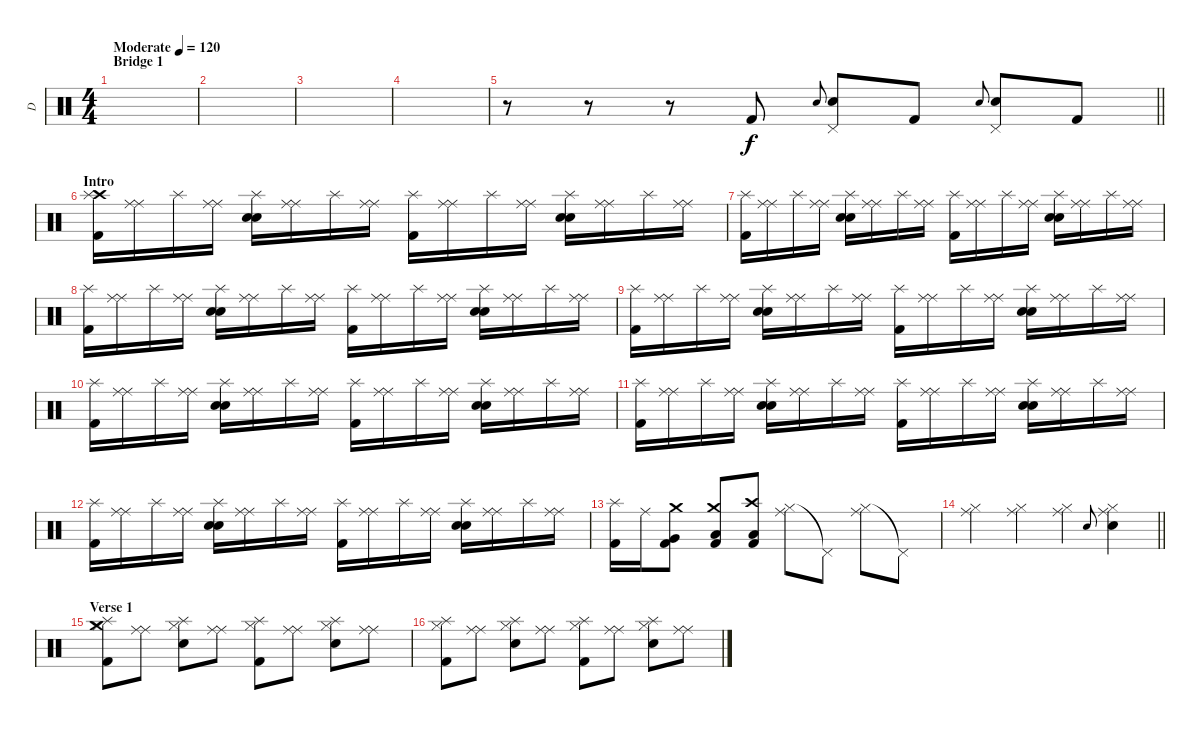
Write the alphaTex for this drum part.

\track ("D" "D") {instrument percussion}
\staff {score}
\articulation defaults
\ts (4 4)
\section ("" "Bridge 1")
\tempo (120 "Moderate")
\clef neutral
\ks c
|
|
|
|
\barLineRight lightlight
r.8 r.8 r.8 "Kick (hit) 2".8 "Electric Snare (hit)".8{gr onbeat} ("Electric Snare (hit)" "Pedal Hi-Hat (hit)").8 "Kick (hit) 2".8 "Electric Snare (hit)".8{gr onbeat} ("Electric Snare (hit)" "Pedal Hi-Hat (hit)").8 "Kick (hit) 2".8 |
\section ("" "Intro")
("Crash high (hit)" "Kick (hit) 2" "Splash (hit)").16 ("Ride (middle)" "Ride (middle)").16 "Splash (hit)".16 ("Ride (middle)" "Ride (middle)").16 ("Electric Snare (hit)" "Electric Snare (hit)" "Splash (hit)").16 ("Ride (middle)" "Ride (middle)").16 "Splash (hit)".16 ("Ride (middle)" "Ride (middle)").16 ("Kick (hit) 2" "Splash (hit)").16 ("Ride (middle)" "Ride (middle)").16 "Splash (hit)".16 ("Ride (middle)" "Ride (middle)").16 ("Electric Snare (hit)" "Electric Snare (hit)" "Splash (hit)").16 ("Ride (middle)" "Ride (middle)").16 "Splash (hit)".16 ("Ride (middle)" "Ride (middle)").16 |
("Kick (hit) 2" "Splash (hit)").16 ("Ride (middle)" "Ride (middle)").16 "Splash (hit)".16 ("Ride (middle)" "Ride (middle)").16 ("Electric Snare (hit)" "Electric Snare (hit)" "Splash (hit)").16 ("Ride (middle)" "Ride (middle)").16 "Splash (hit)".16 ("Ride (middle)" "Ride (middle)").16 ("Kick (hit) 2" "Splash (hit)").16 ("Ride (middle)" "Ride (middle)").16 "Splash (hit)".16 ("Ride (middle)" "Ride (middle)").16 ("Electric Snare (hit)" "Electric Snare (hit)" "Splash (hit)").16 ("Ride (middle)" "Ride (middle)").16 "Splash (hit)".16 ("Ride (middle)" "Ride (middle)").16 |
("Kick (hit) 2" "Splash (hit)").16 ("Ride (middle)" "Ride (middle)").16 "Splash (hit)".16 ("Ride (middle)" "Ride (middle)").16 ("Electric Snare (hit)" "Electric Snare (hit)" "Splash (hit)").16 ("Ride (middle)" "Ride (middle)").16 "Splash (hit)".16 ("Ride (middle)" "Ride (middle)").16 ("Kick (hit) 2" "Splash (hit)").16 ("Ride (middle)" "Ride (middle)").16 "Splash (hit)".16 ("Ride (middle)" "Ride (middle)").16 ("Electric Snare (hit)" "Electric Snare (hit)" "Splash (hit)").16 ("Ride (middle)" "Ride (middle)").16 "Splash (hit)".16 ("Ride (middle)" "Ride (middle)").16 |
("Kick (hit) 2" "Splash (hit)").16 ("Ride (middle)" "Ride (middle)").16 "Splash (hit)".16 ("Ride (middle)" "Ride (middle)").16 ("Electric Snare (hit)" "Electric Snare (hit)" "Splash (hit)").16 ("Ride (middle)" "Ride (middle)").16 "Splash (hit)".16 ("Ride (middle)" "Ride (middle)").16 ("Kick (hit) 2" "Splash (hit)").16 ("Ride (middle)" "Ride (middle)").16 "Splash (hit)".16 ("Ride (middle)" "Ride (middle)").16 ("Electric Snare (hit)" "Electric Snare (hit)" "Splash (hit)").16 ("Ride (middle)" "Ride (middle)").16 "Splash (hit)".16 ("Ride (middle)" "Ride (middle)").16 |
("Kick (hit) 2" "Splash (hit)").16 ("Ride (middle)" "Ride (middle)").16 "Splash (hit)".16 ("Ride (middle)" "Ride (middle)").16 ("Electric Snare (hit)" "Electric Snare (hit)" "Splash (hit)").16 ("Ride (middle)" "Ride (middle)").16 "Splash (hit)".16 ("Ride (middle)" "Ride (middle)").16 ("Kick (hit) 2" "Splash (hit)").16 ("Ride (middle)" "Ride (middle)").16 "Splash (hit)".16 ("Ride (middle)" "Ride (middle)").16 ("Electric Snare (hit)" "Electric Snare (hit)" "Splash (hit)").16 ("Ride (middle)" "Ride (middle)").16 "Splash (hit)".16 ("Ride (middle)" "Ride (middle)").16 |
("Kick (hit) 2" "Splash (hit)").16 ("Ride (middle)" "Ride (middle)").16 "Splash (hit)".16 ("Ride (middle)" "Ride (middle)").16 ("Electric Snare (hit)" "Electric Snare (hit)" "Splash (hit)").16 ("Ride (middle)" "Ride (middle)").16 "Splash (hit)".16 ("Ride (middle)" "Ride (middle)").16 ("Kick (hit) 2" "Splash (hit)").16 ("Ride (middle)" "Ride (middle)").16 "Splash (hit)".16 ("Ride (middle)" "Ride (middle)").16 ("Electric Snare (hit)" "Electric Snare (hit)" "Splash (hit)").16 ("Ride (middle)" "Ride (middle)").16 "Splash (hit)".16 ("Ride (middle)" "Ride (middle)").16 |
("Kick (hit) 2" "Splash (hit)").16 ("Ride (middle)" "Ride (middle)").16 "Splash (hit)".16 ("Ride (middle)" "Ride (middle)").16 ("Electric Snare (hit)" "Electric Snare (hit)" "Splash (hit)").16 ("Ride (middle)" "Ride (middle)").16 "Splash (hit)".16 ("Ride (middle)" "Ride (middle)").16 ("Kick (hit) 2" "Splash (hit)").16 ("Ride (middle)" "Ride (middle)").16 "Splash (hit)".16 ("Ride (middle)" "Ride (middle)").16 ("Electric Snare (hit)" "Electric Snare (hit)" "Splash (hit)").16 ("Ride (middle)" "Ride (middle)").16 "Splash (hit)".16 ("Ride (middle)" "Ride (middle)").16 |
("Kick (hit) 2" "Splash (hit)").16 "Ride (middle)".16 ("Crash medium (hit)" "Very Low Tom (hit)" "Kick (hit) 2").8 ("Crash medium (hit)" "Low Tom (hit)" "Kick (hit) 2").8 ("Crash high (hit)" "Low Tom (hit)" "Kick (hit) 2").8 ("Hi-Hat (closed)" "Ride (middle)").8 "Pedal Hi-Hat (hit)"{t}.8 ("Hi-Hat (closed)" "Ride (middle)").8 "Pedal Hi-Hat (hit)"{t}.8 |
\barLineRight lightlight
("Hi-Hat (closed)" "Ride (middle)").4 ("Hi-Hat (closed)" "Ride (middle)").4 ("Hi-Hat (closed)" "Ride (middle)").4 "Electric Snare (hit)".8{gr onbeat} ("Electric Snare (hit)" "Hi-Hat (closed)" "Ride (middle)").4 |
\section ("" "Verse 1")
("Crash medium (hit)" "Kick (hit) 2" "Splash (hit)" "Hi-Hat (closed)").8 ("Ride (middle)" "Ride (middle)").8 ("Electric Snare (hit)" "Splash (hit)" "Hi-Hat (closed)").8 ("Ride (middle)" "Ride (middle)").8 ("Kick (hit) 2" "Splash (hit)" "Hi-Hat (closed)").8 ("Ride (middle)" "Ride (middle)").8 ("Electric Snare (hit)" "Splash (hit)" "Hi-Hat (closed)").8 ("Ride (middle)" "Ride (middle)").8 |
("Kick (hit) 2" "Splash (hit)" "Hi-Hat (closed)").8 ("Ride (middle)" "Ride (middle)").8 ("Electric Snare (hit)" "Splash (hit)" "Hi-Hat (closed)").8 ("Ride (middle)" "Ride (middle)").8 ("Kick (hit) 2" "Splash (hit)" "Hi-Hat (closed)").8 ("Ride (middle)" "Ride (middle)").8 ("Electric Snare (hit)" "Splash (hit)" "Hi-Hat (closed)").8 ("Ride (middle)" "Ride (middle)").8
